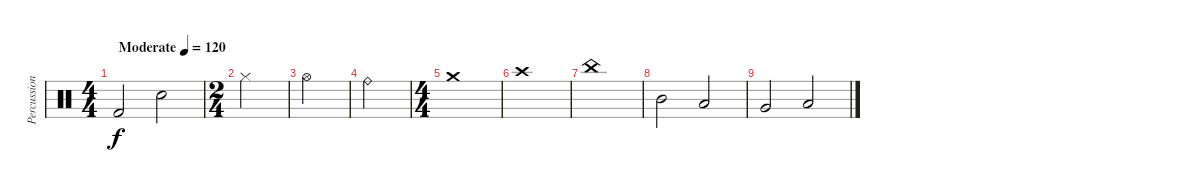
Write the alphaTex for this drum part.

\track ("Percussion" "Percussion") {instrument percussion}
\staff {score}
\articulation defaults
\ts (4 4)
\tempo (120 "Moderate")
\clef neutral
\ks c "Kick (hit) 2".2{dy f} "Electric Snare (hit)".2
|
\ts (2 4)
"Hi-Hat (closed)".2 |
"Hi-Hat (open)".2 |
"Ride (bell)".2 |
\ts (4 4)
"Crash medium (hit)".1 |
"Crash high (hit)".1 |
"China (hit)".1 |
"Mid Tom (hit)".2 "Low Tom (hit)".2 |
"Very Low Tom (hit)".2 "Low Floor Tom (hit)".2
